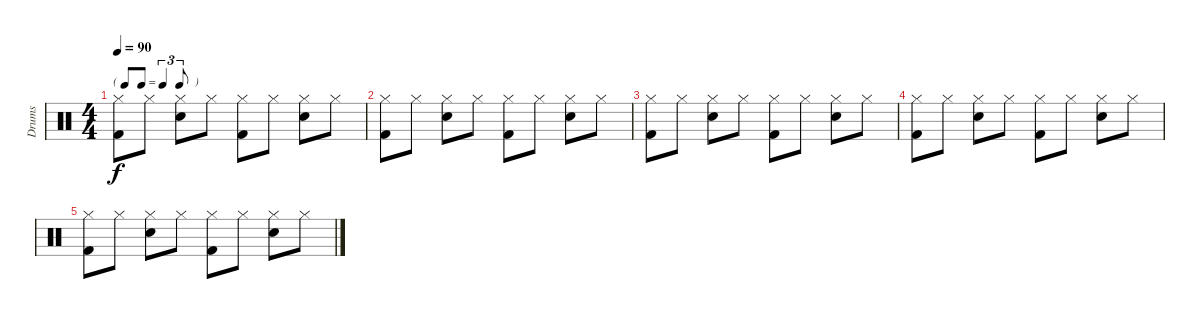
\track ("Drums" "Drums") {instrument percussion}
\staff {score}
\articulation defaults
\ts (4 4)
\tf triplet8th
\tempo 90
\clef neutral
\ks c
("Kick (hit) 2" "Hi-Hat (closed)").8{dy f} "Hi-Hat (closed)".8 ("Electric Snare (hit)" "Hi-Hat (closed)").8 "Hi-Hat (closed)".8 ("Kick (hit) 2" "Hi-Hat (closed)").8 "Hi-Hat (closed)".8 ("Electric Snare (hit)" "Hi-Hat (closed)").8 "Hi-Hat (closed)".8 |
("Kick (hit) 2" "Hi-Hat (closed)").8 "Hi-Hat (closed)".8 ("Electric Snare (hit)" "Hi-Hat (closed)").8 "Hi-Hat (closed)".8 ("Kick (hit) 2" "Hi-Hat (closed)").8 "Hi-Hat (closed)".8 ("Electric Snare (hit)" "Hi-Hat (closed)").8 "Hi-Hat (closed)".8 |
("Kick (hit) 2" "Hi-Hat (closed)").8 "Hi-Hat (closed)".8 ("Electric Snare (hit)" "Hi-Hat (closed)").8 "Hi-Hat (closed)".8 ("Kick (hit) 2" "Hi-Hat (closed)").8 "Hi-Hat (closed)".8 ("Electric Snare (hit)" "Hi-Hat (closed)").8 "Hi-Hat (closed)".8 |
("Kick (hit) 2" "Hi-Hat (closed)").8 "Hi-Hat (closed)".8 ("Electric Snare (hit)" "Hi-Hat (closed)").8 "Hi-Hat (closed)".8 ("Kick (hit) 2" "Hi-Hat (closed)").8 "Hi-Hat (closed)".8 ("Electric Snare (hit)" "Hi-Hat (closed)").8 "Hi-Hat (closed)".8 |
("Kick (hit) 2" "Hi-Hat (closed)").8 "Hi-Hat (closed)".8 ("Electric Snare (hit)" "Hi-Hat (closed)").8 "Hi-Hat (closed)".8 ("Kick (hit) 2" "Hi-Hat (closed)").8 "Hi-Hat (closed)".8 ("Electric Snare (hit)" "Hi-Hat (closed)").8 "Hi-Hat (closed)".8
